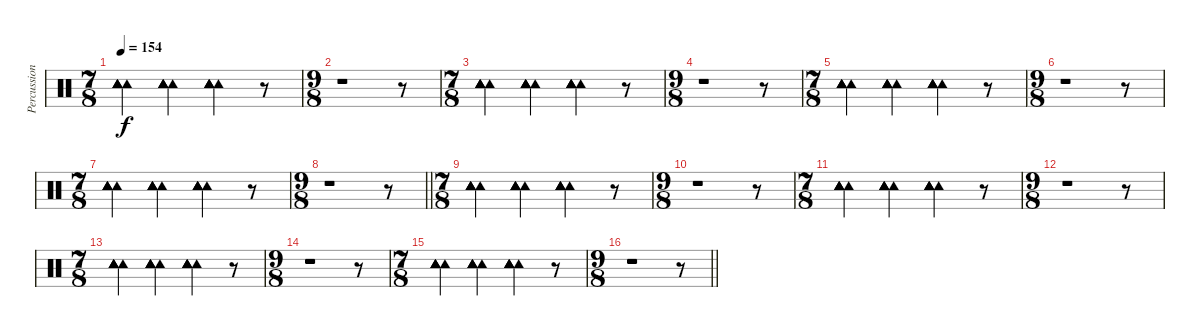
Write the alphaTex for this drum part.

\track ("Percussions" "Percussion") {instrument percussion}
\staff {score}
\articulation defaults
\ts (7 8)
\tempo 154
\clef neutral
\ks c
("Tambourine (hit)" "Tambourine (hit)" "Tambourine (hit)" "Tambourine (hit)" "Tambourine (hit)").4{dy f} ("Tambourine (hit)" "Tambourine (hit)" "Tambourine (hit)" "Tambourine (hit)" "Tambourine (hit)").4 ("Tambourine (hit)" "Tambourine (hit)" "Tambourine (hit)" "Tambourine (hit)" "Tambourine (hit)").4 r.8 |
\ts (9 8)
r.1 r.8 |
\ts (7 8)
("Tambourine (hit)" "Tambourine (hit)" "Tambourine (hit)" "Tambourine (hit)" "Tambourine (hit)").4 ("Tambourine (hit)" "Tambourine (hit)" "Tambourine (hit)" "Tambourine (hit)" "Tambourine (hit)").4 ("Tambourine (hit)" "Tambourine (hit)" "Tambourine (hit)" "Tambourine (hit)" "Tambourine (hit)").4 r.8 |
\ts (9 8)
r.1 r.8 |
\ts (7 8)
("Tambourine (hit)" "Tambourine (hit)" "Tambourine (hit)" "Tambourine (hit)" "Tambourine (hit)").4 ("Tambourine (hit)" "Tambourine (hit)" "Tambourine (hit)" "Tambourine (hit)" "Tambourine (hit)").4 ("Tambourine (hit)" "Tambourine (hit)" "Tambourine (hit)" "Tambourine (hit)" "Tambourine (hit)").4 r.8 |
\ts (9 8)
r.1 r.8 |
\ts (7 8)
("Tambourine (hit)" "Tambourine (hit)" "Tambourine (hit)" "Tambourine (hit)" "Tambourine (hit)").4 ("Tambourine (hit)" "Tambourine (hit)" "Tambourine (hit)" "Tambourine (hit)" "Tambourine (hit)").4 ("Tambourine (hit)" "Tambourine (hit)" "Tambourine (hit)" "Tambourine (hit)" "Tambourine (hit)").4 r.8 |
\ts (9 8)
\barLineRight lightlight
r.1 r.8 |
\ts (7 8)
("Tambourine (hit)" "Tambourine (hit)" "Tambourine (hit)" "Tambourine (hit)" "Tambourine (hit)").4 ("Tambourine (hit)" "Tambourine (hit)" "Tambourine (hit)" "Tambourine (hit)" "Tambourine (hit)").4 ("Tambourine (hit)" "Tambourine (hit)" "Tambourine (hit)" "Tambourine (hit)" "Tambourine (hit)").4 r.8 |
\ts (9 8)
r.1 r.8 |
\ts (7 8)
("Tambourine (hit)" "Tambourine (hit)" "Tambourine (hit)" "Tambourine (hit)" "Tambourine (hit)").4 ("Tambourine (hit)" "Tambourine (hit)" "Tambourine (hit)" "Tambourine (hit)" "Tambourine (hit)").4 ("Tambourine (hit)" "Tambourine (hit)" "Tambourine (hit)" "Tambourine (hit)" "Tambourine (hit)").4 r.8 |
\ts (9 8)
r.1 r.8 |
\ts (7 8)
("Tambourine (hit)" "Tambourine (hit)" "Tambourine (hit)" "Tambourine (hit)" "Tambourine (hit)").4 ("Tambourine (hit)" "Tambourine (hit)" "Tambourine (hit)" "Tambourine (hit)" "Tambourine (hit)").4 ("Tambourine (hit)" "Tambourine (hit)" "Tambourine (hit)" "Tambourine (hit)" "Tambourine (hit)").4 r.8 |
\ts (9 8)
r.1 r.8 |
\ts (7 8)
("Tambourine (hit)" "Tambourine (hit)" "Tambourine (hit)" "Tambourine (hit)" "Tambourine (hit)").4 ("Tambourine (hit)" "Tambourine (hit)" "Tambourine (hit)" "Tambourine (hit)" "Tambourine (hit)").4 ("Tambourine (hit)" "Tambourine (hit)" "Tambourine (hit)" "Tambourine (hit)" "Tambourine (hit)").4 r.8 |
\ts (9 8)
\barLineRight lightlight
r.1 r.8
